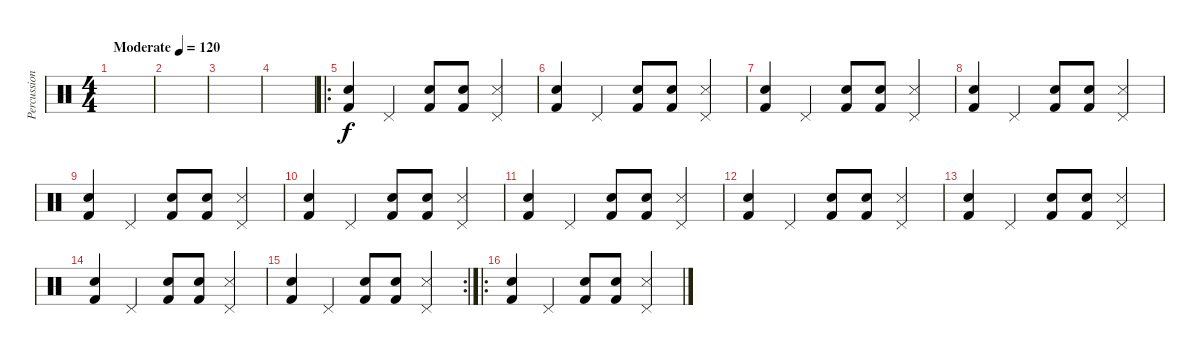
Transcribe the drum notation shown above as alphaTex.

\track ("Percussion" "Percussion") {instrument percussion}
\staff {score}
\articulation defaults
\ts (4 4)
\tempo (120 "Moderate")
\clef neutral
\ks c
|
|
|
|
\ro
("Kick (hit) 2" "Snare (hit) 2").4 "Pedal Hi-Hat (hit)".4 ("Kick (hit) 2" "Snare (hit) 2").8 ("Kick (hit) 2" "Snare (hit) 2").8 ("Pedal Hi-Hat (hit)" "Snare (side stick) 3").4 |
("Kick (hit) 2" "Snare (hit) 2").4 "Pedal Hi-Hat (hit)".4 ("Kick (hit) 2" "Snare (hit) 2").8 ("Kick (hit) 2" "Snare (hit) 2").8 ("Pedal Hi-Hat (hit)" "Snare (side stick) 3").4 |
("Kick (hit) 2" "Snare (hit) 2").4 "Pedal Hi-Hat (hit)".4 ("Kick (hit) 2" "Snare (hit) 2").8 ("Kick (hit) 2" "Snare (hit) 2").8 ("Pedal Hi-Hat (hit)" "Snare (side stick) 3").4 |
("Kick (hit) 2" "Snare (hit) 2").4 "Pedal Hi-Hat (hit)".4 ("Kick (hit) 2" "Snare (hit) 2").8 ("Kick (hit) 2" "Snare (hit) 2").8 ("Pedal Hi-Hat (hit)" "Snare (side stick) 3").4 |
("Kick (hit) 2" "Snare (hit) 2").4 "Pedal Hi-Hat (hit)".4 ("Kick (hit) 2" "Snare (hit) 2").8 ("Kick (hit) 2" "Snare (hit) 2").8 ("Pedal Hi-Hat (hit)" "Snare (side stick) 3").4 |
("Kick (hit) 2" "Snare (hit) 2").4 "Pedal Hi-Hat (hit)".4 ("Kick (hit) 2" "Snare (hit) 2").8 ("Kick (hit) 2" "Snare (hit) 2").8 ("Pedal Hi-Hat (hit)" "Snare (side stick) 3").4 |
("Kick (hit) 2" "Snare (hit) 2").4 "Pedal Hi-Hat (hit)".4 ("Kick (hit) 2" "Snare (hit) 2").8 ("Kick (hit) 2" "Snare (hit) 2").8 ("Pedal Hi-Hat (hit)" "Snare (side stick) 3").4 |
("Kick (hit) 2" "Snare (hit) 2").4 "Pedal Hi-Hat (hit)".4 ("Kick (hit) 2" "Snare (hit) 2").8 ("Kick (hit) 2" "Snare (hit) 2").8 ("Pedal Hi-Hat (hit)" "Snare (side stick) 3").4 |
("Kick (hit) 2" "Snare (hit) 2").4 "Pedal Hi-Hat (hit)".4 ("Kick (hit) 2" "Snare (hit) 2").8 ("Kick (hit) 2" "Snare (hit) 2").8 ("Pedal Hi-Hat (hit)" "Snare (side stick) 3").4 |
("Kick (hit) 2" "Snare (hit) 2").4 "Pedal Hi-Hat (hit)".4 ("Kick (hit) 2" "Snare (hit) 2").8 ("Kick (hit) 2" "Snare (hit) 2").8 ("Pedal Hi-Hat (hit)" "Snare (side stick) 3").4 |
\rc 2
("Kick (hit) 2" "Snare (hit) 2").4 "Pedal Hi-Hat (hit)".4 ("Kick (hit) 2" "Snare (hit) 2").8 ("Kick (hit) 2" "Snare (hit) 2").8 ("Pedal Hi-Hat (hit)" "Snare (side stick) 3").4 |
\ro
("Kick (hit) 2" "Snare (hit) 2").4 "Pedal Hi-Hat (hit)".4 ("Kick (hit) 2" "Snare (hit) 2").8 ("Kick (hit) 2" "Snare (hit) 2").8 ("Pedal Hi-Hat (hit)" "Snare (side stick) 3").4
